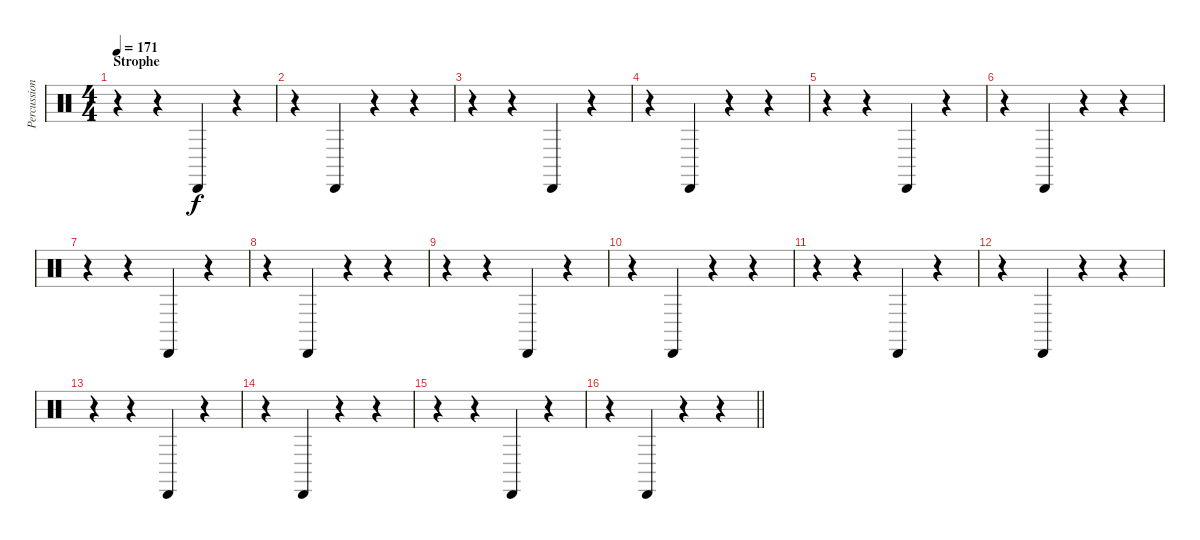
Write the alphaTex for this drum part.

\track ("Percussion" "Percussion") {instrument percussion}
\staff {score}
\articulation defaults
\ts (4 4)
\section ("" "Strophe")
\tempo 171
\clef neutral
\ks c
r.4{dy f} r.4 "Cabasa (hit)".4 r.4 |
r.4 "Cabasa (hit)".4 r.4 r.4 |
r.4 r.4 "Cabasa (hit)".4 r.4 |
r.4 "Cabasa (hit)".4 r.4 r.4 |
r.4 r.4 "Cabasa (hit)".4 r.4 |
r.4 "Cabasa (hit)".4 r.4 r.4 |
r.4 r.4 "Cabasa (hit)".4 r.4 |
r.4 "Cabasa (hit)".4 r.4 r.4 |
r.4 r.4 "Cabasa (hit)".4 r.4 |
r.4 "Cabasa (hit)".4 r.4 r.4 |
r.4 r.4 "Cabasa (hit)".4 r.4 |
r.4 "Cabasa (hit)".4 r.4 r.4 |
r.4 r.4 "Cabasa (hit)".4 r.4 |
r.4 "Cabasa (hit)".4 r.4 r.4 |
r.4 r.4 "Cabasa (hit)".4 r.4 |
\barLineRight lightlight
r.4 "Cabasa (hit)".4 r.4 r.4
